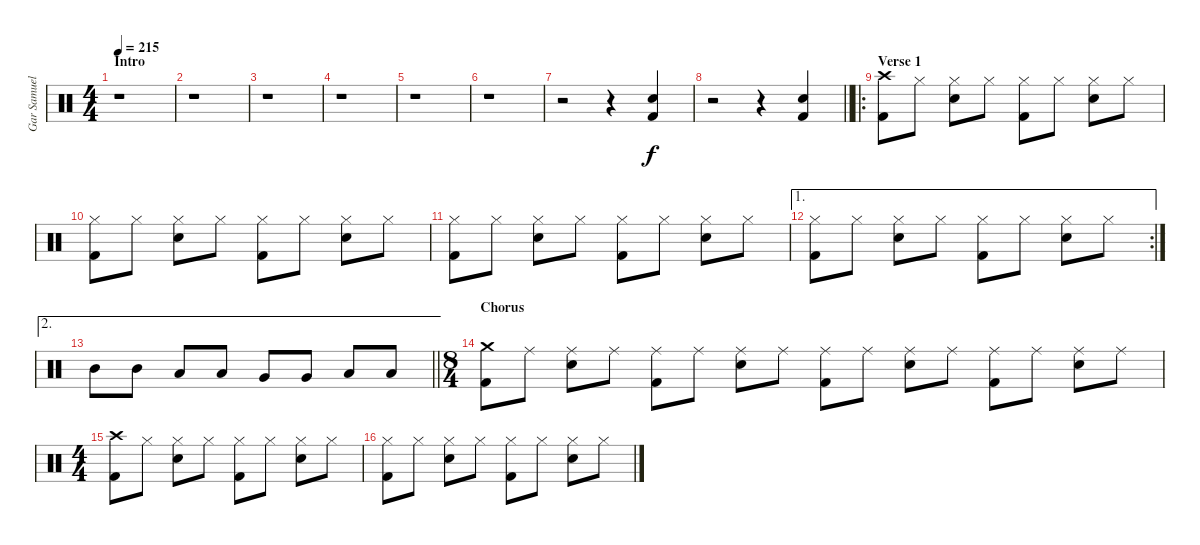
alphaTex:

\track ("Gar Samuelson" "Gar Samuel") {instrument percussion}
\staff
\articulation defaults
\ts (4 4)
\section ("" "Intro")
\tempo 215
\clef neutral
\ks c
r.1{dy f} |
r.1 |
r.1 |
r.1 |
r.1 |
r.1 |
r.2 r.4 ("Snare (hit) 2" "Kick (hit) 2").4 |
\barLineRight lightlight
r.2 r.4 ("Snare (hit) 2" "Kick (hit) 2").4 |
\ro
\section ("" "Verse 1")
("Crash high (hit)" "Kick (hit) 2").8 "Hi-Hat (closed)".8 ("Hi-Hat (closed)" "Snare (hit) 2").8 "Hi-Hat (closed)".8 ("Hi-Hat (closed)" "Kick (hit) 2").8 "Hi-Hat (closed)".8 ("Hi-Hat (closed)" "Snare (hit) 2").8 "Hi-Hat (closed)".8 |
("Hi-Hat (closed)" "Kick (hit) 2").8 "Hi-Hat (closed)".8 ("Hi-Hat (closed)" "Snare (hit) 2").8 "Hi-Hat (closed)".8 ("Hi-Hat (closed)" "Kick (hit) 2").8 "Hi-Hat (closed)".8 ("Hi-Hat (closed)" "Snare (hit) 2").8 "Hi-Hat (closed)".8 |
("Hi-Hat (closed)" "Kick (hit) 2").8 "Hi-Hat (closed)".8 ("Hi-Hat (closed)" "Snare (hit) 2").8 "Hi-Hat (closed)".8 ("Hi-Hat (closed)" "Kick (hit) 2").8 "Hi-Hat (closed)".8 ("Hi-Hat (closed)" "Snare (hit) 2").8 "Hi-Hat (closed)".8 |
\ae 1
\rc 2
("Hi-Hat (closed)" "Kick (hit) 2").8 "Hi-Hat (closed)".8 ("Hi-Hat (closed)" "Snare (hit) 2").8 "Hi-Hat (closed)".8 ("Hi-Hat (closed)" "Kick (hit) 2").8 "Hi-Hat (closed)".8 ("Hi-Hat (closed)" "Snare (hit) 2").8 "Hi-Hat (closed)".8 |
\ae 2
\barLineRight lightlight "Mid Tom (hit)".8 "Mid Tom (hit)".8 "Low Tom (hit)".8 "Low Tom (hit)".8 "Very Low Tom (hit)".8 "Very Low Tom (hit)".8 "Low Floor Tom (hit)".8 "Low Floor Tom (hit)".8
|
\ts (8 4)
\section ("" "Chorus")
("Crash medium (hit)" "Kick (hit) 2").8 "Ride (middle)".8 ("Ride (middle)" "Snare (hit) 2").8 "Ride (middle)".8 ("Ride (middle)" "Kick (hit) 2").8 "Ride (middle)".8 ("Ride (middle)" "Snare (hit) 2").8 "Ride (middle)".8 ("Ride (middle)" "Kick (hit) 2").8 "Ride (middle)".8 ("Ride (middle)" "Snare (hit) 2").8 "Ride (middle)".8 ("Ride (middle)" "Kick (hit) 2").8 "Ride (middle)".8 ("Ride (middle)" "Snare (hit) 2").8 "Ride (middle)".8 |
\ts (4 4)
("Crash high (hit)" "Kick (hit) 2").8 "Hi-Hat (closed)".8 ("Hi-Hat (closed)" "Snare (hit) 2").8 "Hi-Hat (closed)".8 ("Hi-Hat (closed)" "Kick (hit) 2").8 "Hi-Hat (closed)".8 ("Hi-Hat (closed)" "Snare (hit) 2").8 "Hi-Hat (closed)".8 |
("Hi-Hat (closed)" "Kick (hit) 2").8 "Hi-Hat (closed)".8 ("Hi-Hat (closed)" "Snare (hit) 2").8 "Hi-Hat (closed)".8 ("Hi-Hat (closed)" "Kick (hit) 2").8 "Hi-Hat (closed)".8 ("Hi-Hat (closed)" "Snare (hit) 2").8 "Hi-Hat (closed)".8
